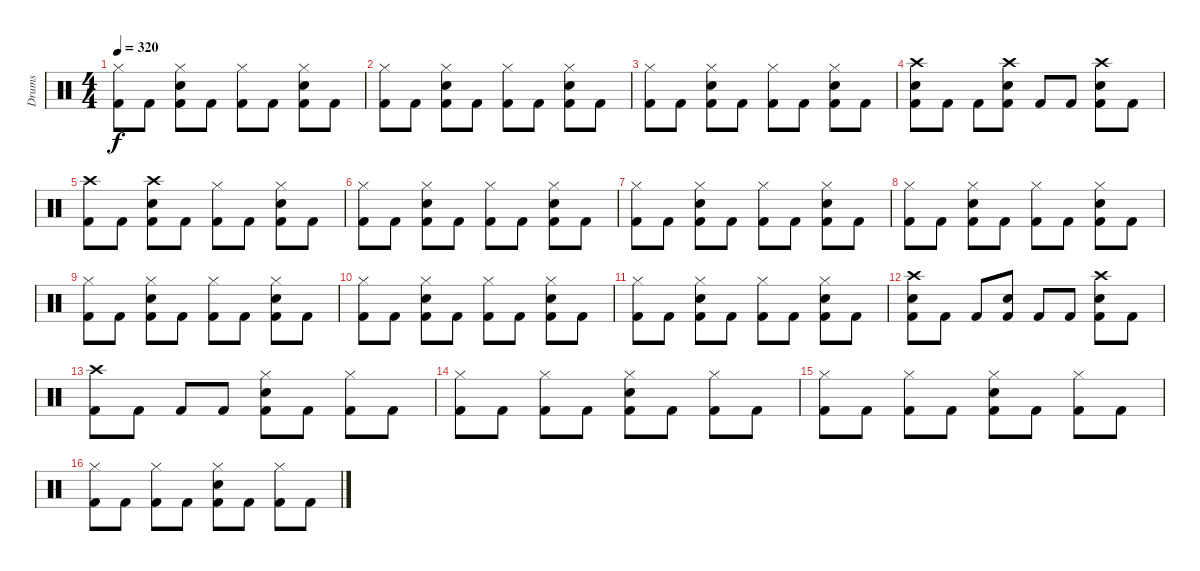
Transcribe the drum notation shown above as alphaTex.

\track ("Drums" "Drums") {instrument percussion}
\staff {score}
\articulation defaults
\ts (4 4)
\tempo 320
\clef neutral
\ks c
("Hi-Hat (closed)" "Kick (hit) 2").8{dy f} "Kick (hit) 2".8 ("Hi-Hat (closed)" "Snare (hit) 2" "Kick (hit) 2").8 "Kick (hit) 2".8 ("Kick (hit) 2" "Hi-Hat (closed)").8 "Kick (hit) 2".8 ("Hi-Hat (closed)" "Snare (hit) 2" "Kick (hit) 2").8 "Kick (hit) 2".8 |
("Hi-Hat (closed)" "Kick (hit) 2").8 "Kick (hit) 2".8 ("Hi-Hat (closed)" "Kick (hit) 2" "Snare (hit) 2").8 "Kick (hit) 2".8 ("Hi-Hat (closed)" "Kick (hit) 2").8 "Kick (hit) 2".8 ("Snare (hit) 2" "Hi-Hat (closed)" "Kick (hit) 2").8 "Kick (hit) 2".8 |
("Hi-Hat (closed)" "Kick (hit) 2").8 "Kick (hit) 2".8 ("Snare (hit) 2" "Kick (hit) 2" "Hi-Hat (closed)").8 "Kick (hit) 2".8 ("Kick (hit) 2" "Hi-Hat (closed)").8 "Kick (hit) 2".8 ("Kick (hit) 2" "Hi-Hat (closed)" "Snare (hit) 2").8 "Kick (hit) 2".8 |
("Kick (hit) 2" "Crash high (hit)" "Snare (hit) 2").8 "Kick (hit) 2".8 "Kick (hit) 2".8 ("Kick (hit) 2" "Snare (hit) 2" "Crash high (hit)").8 "Kick (hit) 2".8 "Kick (hit) 2".8 ("Kick (hit) 2" "Crash high (hit)" "Snare (hit) 2").8 "Kick (hit) 2".8 |
("Crash high (hit)" "Kick (hit) 2").8 "Kick (hit) 2".8 ("Snare (hit) 2" "Crash high (hit)" "Kick (hit) 2").8 "Kick (hit) 2".8 ("Kick (hit) 2" "Hi-Hat (closed)").8 "Kick (hit) 2".8 ("Kick (hit) 2" "Hi-Hat (closed)" "Snare (hit) 2").8 "Kick (hit) 2".8 |
("Hi-Hat (closed)" "Kick (hit) 2").8 "Kick (hit) 2".8 ("Snare (hit) 2" "Hi-Hat (closed)" "Kick (hit) 2").8 "Kick (hit) 2".8 ("Kick (hit) 2" "Hi-Hat (closed)").8 "Kick (hit) 2".8 ("Kick (hit) 2" "Snare (hit) 2" "Hi-Hat (closed)").8 "Kick (hit) 2".8 |
("Hi-Hat (closed)" "Kick (hit) 2").8 "Kick (hit) 2".8 ("Kick (hit) 2" "Hi-Hat (closed)" "Snare (hit) 2").8 "Kick (hit) 2".8 ("Hi-Hat (closed)" "Kick (hit) 2").8 "Kick (hit) 2".8 ("Snare (hit) 2" "Hi-Hat (closed)" "Kick (hit) 2").8 "Kick (hit) 2".8 |
("Hi-Hat (closed)" "Kick (hit) 2").8 "Kick (hit) 2".8 ("Snare (hit) 2" "Hi-Hat (closed)" "Kick (hit) 2").8 "Kick (hit) 2".8 ("Kick (hit) 2" "Hi-Hat (closed)").8 "Kick (hit) 2".8 ("Hi-Hat (closed)" "Kick (hit) 2" "Snare (hit) 2").8 "Kick (hit) 2".8 |
("Hi-Hat (closed)" "Kick (hit) 2").8 "Kick (hit) 2".8 ("Hi-Hat (closed)" "Snare (hit) 2" "Kick (hit) 2").8 "Kick (hit) 2".8 ("Kick (hit) 2" "Hi-Hat (closed)").8 "Kick (hit) 2".8 ("Hi-Hat (closed)" "Snare (hit) 2" "Kick (hit) 2").8 "Kick (hit) 2".8 |
("Hi-Hat (closed)" "Kick (hit) 2").8 "Kick (hit) 2".8 ("Hi-Hat (closed)" "Kick (hit) 2" "Snare (hit) 2").8 "Kick (hit) 2".8 ("Hi-Hat (closed)" "Kick (hit) 2").8 "Kick (hit) 2".8 ("Snare (hit) 2" "Hi-Hat (closed)" "Kick (hit) 2").8 "Kick (hit) 2".8 |
("Hi-Hat (closed)" "Kick (hit) 2").8 "Kick (hit) 2".8 ("Snare (hit) 2" "Kick (hit) 2" "Hi-Hat (closed)").8 "Kick (hit) 2".8 ("Hi-Hat (closed)" "Kick (hit) 2").8 "Kick (hit) 2".8 ("Kick (hit) 2" "Snare (hit) 2" "Hi-Hat (closed)").8 "Kick (hit) 2".8 |
("Kick (hit) 2" "Snare (hit) 2" "Crash high (hit)").8 "Kick (hit) 2".8 "Kick (hit) 2".8 ("Kick (hit) 2" "Snare (hit) 2").8 "Kick (hit) 2".8 "Kick (hit) 2".8 ("Kick (hit) 2" "Snare (hit) 2" "Crash high (hit)").8 "Kick (hit) 2".8 |
("Kick (hit) 2" "Crash high (hit)").8 "Kick (hit) 2".8 "Kick (hit) 2".8 "Kick (hit) 2".8 ("Kick (hit) 2" "Snare (hit) 2" "Hi-Hat (closed)").8 "Kick (hit) 2".8 ("Kick (hit) 2" "Hi-Hat (closed)").8 "Kick (hit) 2".8 |
("Kick (hit) 2" "Hi-Hat (closed)").8 "Kick (hit) 2".8 ("Kick (hit) 2" "Hi-Hat (closed)").8 "Kick (hit) 2".8 ("Kick (hit) 2" "Snare (hit) 2" "Hi-Hat (closed)").8 "Kick (hit) 2".8 ("Hi-Hat (closed)" "Kick (hit) 2").8 "Kick (hit) 2".8 |
("Kick (hit) 2" "Hi-Hat (closed)").8 "Kick (hit) 2".8 ("Kick (hit) 2" "Hi-Hat (closed)").8 "Kick (hit) 2".8 ("Kick (hit) 2" "Hi-Hat (closed)" "Snare (hit) 2").8 "Kick (hit) 2".8 ("Hi-Hat (closed)" "Kick (hit) 2").8 "Kick (hit) 2".8 |
("Kick (hit) 2" "Hi-Hat (closed)").8 "Kick (hit) 2".8 ("Kick (hit) 2" "Hi-Hat (closed)").8 "Kick (hit) 2".8 ("Kick (hit) 2" "Hi-Hat (closed)" "Snare (hit) 2").8 "Kick (hit) 2".8 ("Kick (hit) 2" "Hi-Hat (closed)").8 "Kick (hit) 2".8
